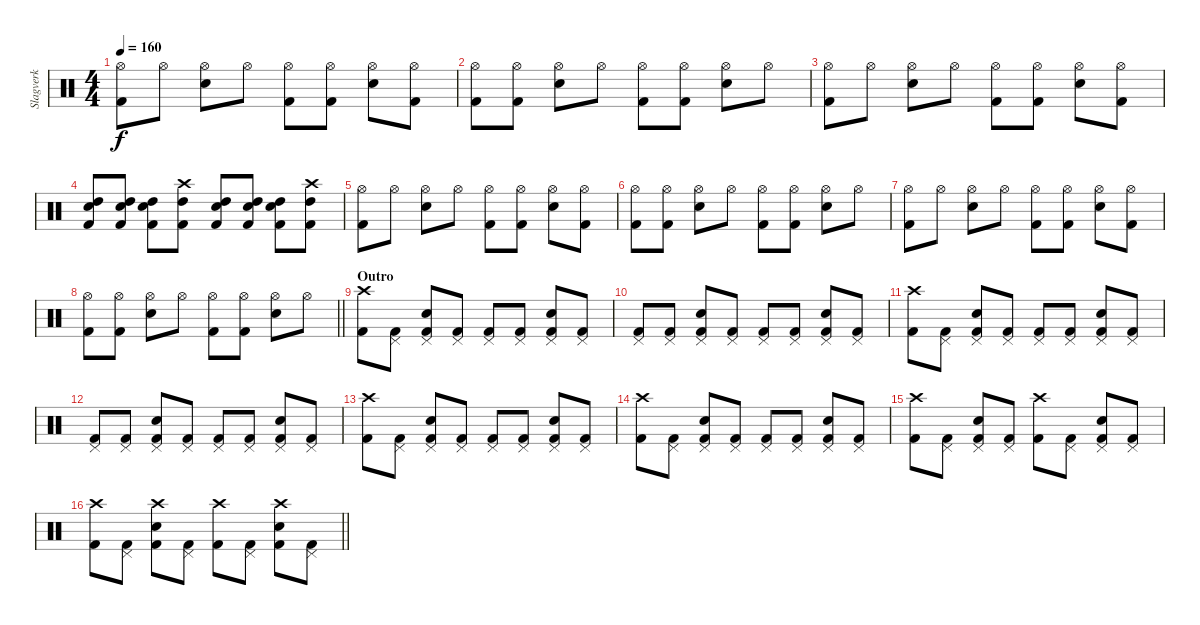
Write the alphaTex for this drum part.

\track ("Slagverk" "Slagverk") {instrument percussion}
\staff {score}
\articulation defaults
\ts (4 4)
\tempo 160
\clef neutral
\ks c
("Hi-Hat (open)" "Kick (hit) 2").8{dy f} "Hi-Hat (open)".8 ("Snare (hit) 2" "Hi-Hat (open)").8 "Hi-Hat (open)".8 ("Hi-Hat (open)" "Kick (hit) 2").8 ("Hi-Hat (open)" "Kick (hit) 2").8 ("Snare (hit) 2" "Hi-Hat (open)").8 ("Hi-Hat (open)" "Kick (hit) 2").8 |
("Hi-Hat (open)" "Kick (hit) 2").8 ("Hi-Hat (open)" "Kick (hit) 2").8 ("Snare (hit) 2" "Hi-Hat (open)").8 "Hi-Hat (open)".8 ("Hi-Hat (open)" "Kick (hit) 2").8 ("Hi-Hat (open)" "Kick (hit) 2").8 ("Snare (hit) 2" "Hi-Hat (open)").8 "Hi-Hat (open)".8 |
("Hi-Hat (open)" "Kick (hit) 2").8 "Hi-Hat (open)".8 ("Snare (hit) 2" "Hi-Hat (open)").8 "Hi-Hat (open)".8 ("Hi-Hat (open)" "Kick (hit) 2").8 ("Hi-Hat (open)" "Kick (hit) 2").8 ("Snare (hit) 2" "Hi-Hat (open)").8 ("Hi-Hat (open)" "Kick (hit) 2").8 |
("Snare (hit) 2" "High Tom (hit)" "Kick (hit) 2").8 ("Snare (hit) 2" "High Tom (hit)" "Kick (hit) 2").8 ("Snare (hit) 2" "High Tom (hit)" "Kick (hit) 2").8 ("Crash high (hit)" "High Tom (hit)" "Kick (hit) 2").8 ("Snare (hit) 2" "High Tom (hit)" "Kick (hit) 2").8 ("Snare (hit) 2" "High Tom (hit)" "Kick (hit) 2").8 ("Snare (hit) 2" "High Tom (hit)" "Kick (hit) 2").8 ("Crash high (hit)" "High Tom (hit)" "Kick (hit) 2").8 |
("Hi-Hat (open)" "Kick (hit) 2").8 "Hi-Hat (open)".8 ("Snare (hit) 2" "Hi-Hat (open)").8 "Hi-Hat (open)".8 ("Hi-Hat (open)" "Kick (hit) 2").8 ("Hi-Hat (open)" "Kick (hit) 2").8 ("Snare (hit) 2" "Hi-Hat (open)").8 ("Hi-Hat (open)" "Kick (hit) 2").8 |
("Hi-Hat (open)" "Kick (hit) 2").8 ("Hi-Hat (open)" "Kick (hit) 2").8 ("Snare (hit) 2" "Hi-Hat (open)").8 "Hi-Hat (open)".8 ("Hi-Hat (open)" "Kick (hit) 2").8 ("Hi-Hat (open)" "Kick (hit) 2").8 ("Snare (hit) 2" "Hi-Hat (open)").8 "Hi-Hat (open)".8 |
("Hi-Hat (open)" "Kick (hit) 2").8 "Hi-Hat (open)".8 ("Snare (hit) 2" "Hi-Hat (open)").8 "Hi-Hat (open)".8 ("Hi-Hat (open)" "Kick (hit) 2").8 ("Hi-Hat (open)" "Kick (hit) 2").8 ("Snare (hit) 2" "Hi-Hat (open)").8 ("Hi-Hat (open)" "Kick (hit) 2").8 |
\barLineRight lightlight
("Hi-Hat (open)" "Kick (hit) 2").8 ("Hi-Hat (open)" "Kick (hit) 2").8 ("Snare (hit) 2" "Hi-Hat (open)").8 "Hi-Hat (open)".8 ("Hi-Hat (open)" "Kick (hit) 2").8 ("Hi-Hat (open)" "Kick (hit) 2").8 ("Snare (hit) 2" "Hi-Hat (open)").8 "Hi-Hat (open)".8 |
\section ("" "Outro")
("Crash high (hit)" "Kick (hit) 2").8 ("Pedal Hi-Hat (hit)" "Kick (hit) 2").8 ("Pedal Hi-Hat (hit)" "Snare (hit) 2" "Kick (hit) 2").8 ("Pedal Hi-Hat (hit)" "Kick (hit) 2").8 ("Pedal Hi-Hat (hit)" "Kick (hit) 2").8 ("Pedal Hi-Hat (hit)" "Kick (hit) 2").8 ("Pedal Hi-Hat (hit)" "Snare (hit) 2" "Kick (hit) 2").8 ("Pedal Hi-Hat (hit)" "Kick (hit) 2").8 |
("Pedal Hi-Hat (hit)" "Kick (hit) 2").8 ("Pedal Hi-Hat (hit)" "Kick (hit) 2").8 ("Pedal Hi-Hat (hit)" "Snare (hit) 2" "Kick (hit) 2").8 ("Pedal Hi-Hat (hit)" "Kick (hit) 2").8 ("Pedal Hi-Hat (hit)" "Kick (hit) 2").8 ("Pedal Hi-Hat (hit)" "Kick (hit) 2").8 ("Pedal Hi-Hat (hit)" "Snare (hit) 2" "Kick (hit) 2").8 ("Pedal Hi-Hat (hit)" "Kick (hit) 2").8 |
("Crash high (hit)" "Kick (hit) 2").8 ("Pedal Hi-Hat (hit)" "Kick (hit) 2").8 ("Pedal Hi-Hat (hit)" "Snare (hit) 2" "Kick (hit) 2").8 ("Pedal Hi-Hat (hit)" "Kick (hit) 2").8 ("Pedal Hi-Hat (hit)" "Kick (hit) 2").8 ("Pedal Hi-Hat (hit)" "Kick (hit) 2").8 ("Pedal Hi-Hat (hit)" "Snare (hit) 2" "Kick (hit) 2").8 ("Pedal Hi-Hat (hit)" "Kick (hit) 2").8 |
("Pedal Hi-Hat (hit)" "Kick (hit) 2").8 ("Pedal Hi-Hat (hit)" "Kick (hit) 2").8 ("Pedal Hi-Hat (hit)" "Snare (hit) 2" "Kick (hit) 2").8 ("Pedal Hi-Hat (hit)" "Kick (hit) 2").8 ("Pedal Hi-Hat (hit)" "Kick (hit) 2").8 ("Pedal Hi-Hat (hit)" "Kick (hit) 2").8 ("Pedal Hi-Hat (hit)" "Snare (hit) 2" "Kick (hit) 2").8 ("Pedal Hi-Hat (hit)" "Kick (hit) 2").8 |
("Crash high (hit)" "Kick (hit) 2").8 ("Pedal Hi-Hat (hit)" "Kick (hit) 2").8 ("Pedal Hi-Hat (hit)" "Snare (hit) 2" "Kick (hit) 2").8 ("Pedal Hi-Hat (hit)" "Kick (hit) 2").8 ("Pedal Hi-Hat (hit)" "Kick (hit) 2").8 ("Pedal Hi-Hat (hit)" "Kick (hit) 2").8 ("Pedal Hi-Hat (hit)" "Snare (hit) 2" "Kick (hit) 2").8 ("Pedal Hi-Hat (hit)" "Kick (hit) 2").8 |
("Crash high (hit)" "Kick (hit) 2").8 ("Pedal Hi-Hat (hit)" "Kick (hit) 2").8 ("Pedal Hi-Hat (hit)" "Snare (hit) 2" "Kick (hit) 2").8 ("Pedal Hi-Hat (hit)" "Kick (hit) 2").8 ("Pedal Hi-Hat (hit)" "Kick (hit) 2").8 ("Pedal Hi-Hat (hit)" "Kick (hit) 2").8 ("Pedal Hi-Hat (hit)" "Snare (hit) 2" "Kick (hit) 2").8 ("Pedal Hi-Hat (hit)" "Kick (hit) 2").8 |
("Crash high (hit)" "Kick (hit) 2").8 ("Pedal Hi-Hat (hit)" "Kick (hit) 2").8 ("Pedal Hi-Hat (hit)" "Snare (hit) 2" "Kick (hit) 2").8 ("Pedal Hi-Hat (hit)" "Kick (hit) 2").8 ("Crash high (hit)" "Kick (hit) 2").8 ("Pedal Hi-Hat (hit)" "Kick (hit) 2").8 ("Pedal Hi-Hat (hit)" "Snare (hit) 2" "Kick (hit) 2").8 ("Pedal Hi-Hat (hit)" "Kick (hit) 2").8 |
\barLineRight lightlight
("Crash high (hit)" "Kick (hit) 2").8 ("Pedal Hi-Hat (hit)" "Kick (hit) 2").8 ("Crash high (hit)" "Snare (hit) 2" "Kick (hit) 2").8 ("Pedal Hi-Hat (hit)" "Kick (hit) 2").8 ("Crash high (hit)" "Kick (hit) 2").8 ("Pedal Hi-Hat (hit)" "Kick (hit) 2").8 ("Crash high (hit)" "Snare (hit) 2" "Kick (hit) 2").8 ("Pedal Hi-Hat (hit)" "Kick (hit) 2").8
